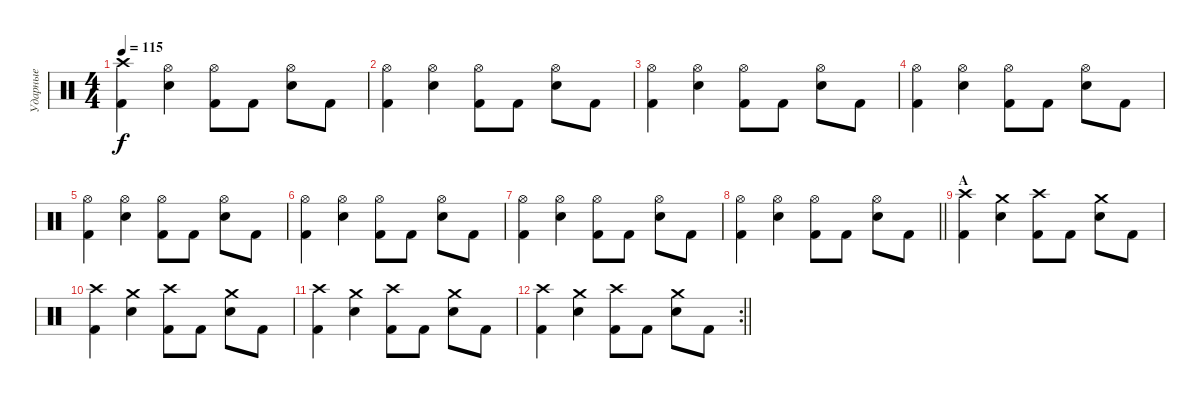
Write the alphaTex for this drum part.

\track ("Ударные" "Ударные") {instrument percussion}
\staff {score}
\articulation defaults
\ts (4 4)
\tempo 115
\clef neutral
\ks c
("Kick (hit) 2" "Crash high (hit)").4{dy f} ("Electric Snare (hit)" "Hi-Hat (open)").4 ("Kick (hit) 2" "Hi-Hat (open)").8 "Kick (hit) 2".8 ("Electric Snare (hit)" "Hi-Hat (open)").8 "Kick (hit) 2".8 |
("Kick (hit) 2" "Hi-Hat (open)").4 ("Electric Snare (hit)" "Hi-Hat (open)").4 ("Kick (hit) 2" "Hi-Hat (open)").8 "Kick (hit) 2".8 ("Electric Snare (hit)" "Hi-Hat (open)").8 "Kick (hit) 2".8 |
("Kick (hit) 2" "Hi-Hat (open)").4 ("Electric Snare (hit)" "Hi-Hat (open)").4 ("Kick (hit) 2" "Hi-Hat (open)").8 "Kick (hit) 2".8 ("Electric Snare (hit)" "Hi-Hat (open)").8 "Kick (hit) 2".8 |
("Kick (hit) 2" "Hi-Hat (open)").4 ("Electric Snare (hit)" "Hi-Hat (open)").4 ("Kick (hit) 2" "Hi-Hat (open)").8 "Kick (hit) 2".8 ("Electric Snare (hit)" "Hi-Hat (open)").8 "Kick (hit) 2".8 |
("Kick (hit) 2" "Hi-Hat (open)").4 ("Electric Snare (hit)" "Hi-Hat (open)").4 ("Kick (hit) 2" "Hi-Hat (open)").8 "Kick (hit) 2".8 ("Electric Snare (hit)" "Hi-Hat (open)").8 "Kick (hit) 2".8 |
("Kick (hit) 2" "Hi-Hat (open)").4 ("Electric Snare (hit)" "Hi-Hat (open)").4 ("Kick (hit) 2" "Hi-Hat (open)").8 "Kick (hit) 2".8 ("Electric Snare (hit)" "Hi-Hat (open)").8 "Kick (hit) 2".8 |
("Kick (hit) 2" "Hi-Hat (open)").4 ("Electric Snare (hit)" "Hi-Hat (open)").4 ("Kick (hit) 2" "Hi-Hat (open)").8 "Kick (hit) 2".8 ("Electric Snare (hit)" "Hi-Hat (open)").8 "Kick (hit) 2".8 |
\barLineRight lightlight
("Kick (hit) 2" "Hi-Hat (open)").4 ("Electric Snare (hit)" "Hi-Hat (open)").4 ("Kick (hit) 2" "Hi-Hat (open)").8 "Kick (hit) 2".8 ("Electric Snare (hit)" "Hi-Hat (open)").8 "Kick (hit) 2".8 |
\section ("" "A")
("Kick (hit) 2" "Crash high (hit)").4 ("Electric Snare (hit)" "Crash medium (hit)").4 ("Kick (hit) 2" "Crash high (hit)").8 "Kick (hit) 2".8 ("Electric Snare (hit)" "Crash medium (hit)").8 "Kick (hit) 2".8 |
("Kick (hit) 2" "Crash high (hit)").4 ("Electric Snare (hit)" "Crash medium (hit)").4 ("Kick (hit) 2" "Crash high (hit)").8 "Kick (hit) 2".8 ("Electric Snare (hit)" "Crash medium (hit)").8 "Kick (hit) 2".8 |
("Kick (hit) 2" "Crash high (hit)").4 ("Electric Snare (hit)" "Crash medium (hit)").4 ("Kick (hit) 2" "Crash high (hit)").8 "Kick (hit) 2".8 ("Electric Snare (hit)" "Crash medium (hit)").8 "Kick (hit) 2".8 |
\rc 2
\barLineRight lightlight
("Kick (hit) 2" "Crash high (hit)").4 ("Electric Snare (hit)" "Crash medium (hit)").4 ("Kick (hit) 2" "Crash high (hit)").8 "Kick (hit) 2".8 ("Electric Snare (hit)" "Crash medium (hit)").8 "Kick (hit) 2".8
